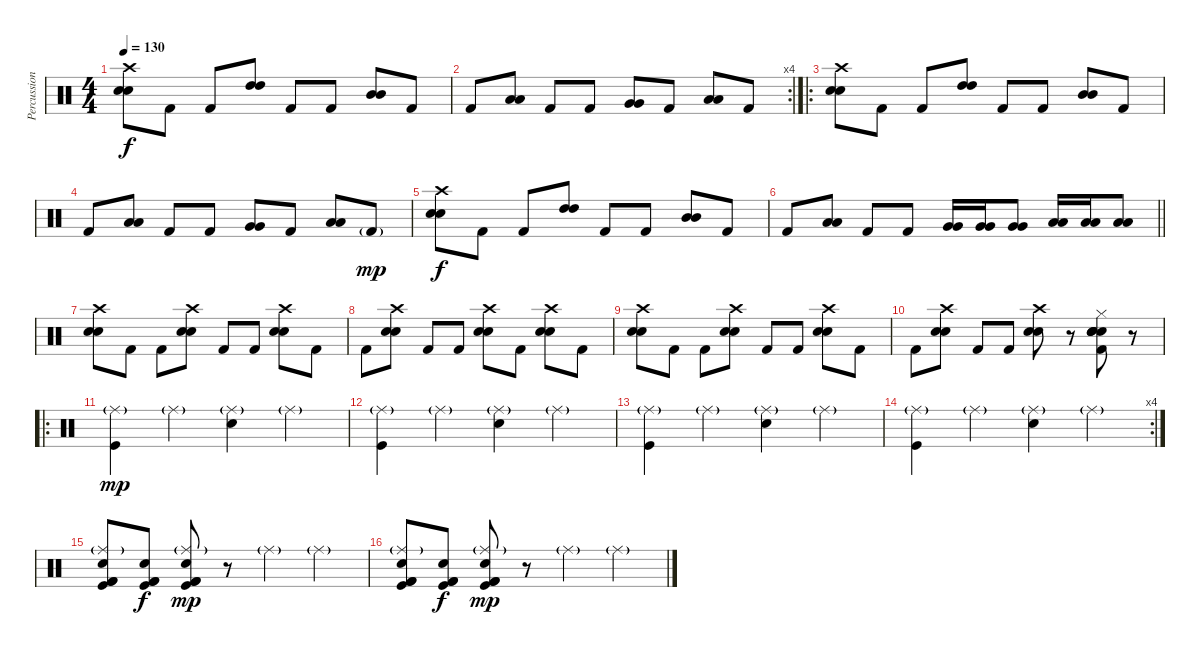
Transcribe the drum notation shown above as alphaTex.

\track ("Percussions" "Percussion") {instrument percussion}
\staff {score}
\articulation defaults
\ts (4 4)
\tempo 130
\clef neutral
\ks c
("Electric Snare (hit)" "Electric Snare (hit)" "Crash high (hit)").8{dy f} "Kick (hit) 2".8 "Kick (hit) 2".8 ("High Tom (hit)" "High Tom (hit)").8 "Kick (hit) 2".8 "Kick (hit) 2".8 ("Mid Tom (hit)" "Mid Tom (hit)").8 "Kick (hit) 2".8 |
\rc 4 "Kick (hit) 2".8
("Low Tom (hit)" "Low Tom (hit)").8 "Kick (hit) 2".8 "Kick (hit) 2".8 ("Very Low Tom (hit)" "Very Low Tom (hit)").8 "Kick (hit) 2".8 ("Low Floor Tom (hit)" "Low Floor Tom (hit)").8 "Kick (hit) 2".8 |
\ro
("Electric Snare (hit)" "Electric Snare (hit)" "Crash high (hit)").8 "Kick (hit) 2".8 "Kick (hit) 2".8 ("High Tom (hit)" "High Tom (hit)").8 "Kick (hit) 2".8 "Kick (hit) 2".8 ("Mid Tom (hit)" "Mid Tom (hit)").8 "Kick (hit) 2".8 |
"Kick (hit) 2".8 ("Low Tom (hit)" "Low Tom (hit)").8 "Kick (hit) 2".8 "Kick (hit) 2".8 ("Very Low Tom (hit)" "Very Low Tom (hit)").8 "Kick (hit) 2".8 ("Low Floor Tom (hit)" "Low Floor Tom (hit)").8 "Kick (hit) 2"{g}.8{dy mp} |
("Electric Snare (hit)" "Electric Snare (hit)" "Crash high (hit)").8{dy f} "Kick (hit) 2".8 "Kick (hit) 2".8 ("High Tom (hit)" "High Tom (hit)").8 "Kick (hit) 2".8 "Kick (hit) 2".8 ("Mid Tom (hit)" "Mid Tom (hit)").8 "Kick (hit) 2".8 |
\barLineRight lightlight "Kick (hit) 2".8
("Low Tom (hit)" "Low Tom (hit)").8 "Kick (hit) 2".8 "Kick (hit) 2".8 ("Very Low Tom (hit)" "Very Low Tom (hit)").16 ("Very Low Tom (hit)" "Very Low Tom (hit)").16 ("Very Low Tom (hit)" "Very Low Tom (hit)").8 ("Low Floor Tom (hit)" "Low Floor Tom (hit)").16 ("Low Floor Tom (hit)" "Low Floor Tom (hit)").16 ("Low Floor Tom (hit)" "Low Floor Tom (hit)").8 |
("Electric Snare (hit)" "Electric Snare (hit)" "Crash high (hit)").8 "Kick (hit) 2".8 "Kick (hit) 2".8 ("Electric Snare (hit)" "Electric Snare (hit)" "Crash high (hit)").8 "Kick (hit) 2".8 "Kick (hit) 2".8 ("Electric Snare (hit)" "Electric Snare (hit)" "Crash high (hit)").8 "Kick (hit) 2".8 |
"Kick (hit) 2".8 ("Electric Snare (hit)" "Electric Snare (hit)" "Crash high (hit)").8 "Kick (hit) 2".8 "Kick (hit) 2".8 ("Electric Snare (hit)" "Electric Snare (hit)" "Crash high (hit)").8 "Kick (hit) 2".8 ("Electric Snare (hit)" "Electric Snare (hit)" "Crash high (hit)").8 "Kick (hit) 2".8 |
("Electric Snare (hit)" "Electric Snare (hit)" "Crash high (hit)").8 "Kick (hit) 2".8 "Kick (hit) 2".8 ("Electric Snare (hit)" "Electric Snare (hit)" "Crash high (hit)").8 "Kick (hit) 2".8 "Kick (hit) 2".8 ("Electric Snare (hit)" "Electric Snare (hit)" "Crash high (hit)").8 "Kick (hit) 2".8 |
"Kick (hit) 2".8 ("Electric Snare (hit)" "Electric Snare (hit)" "Crash high (hit)").8 "Kick (hit) 2".8 "Kick (hit) 2".8 ("Electric Snare (hit)" "Electric Snare (hit)" "Crash high (hit)").8 r.8 ("Electric Snare (hit)" "Electric Snare (hit)" "Electric Snare (hit)" "Electric Snare (hit)" "Hi-Hat (closed)" "Kick (hit) 2").8 r.8 |
\ro
("Ride (middle)"{g} "Kick (hit)").4{dy mp} "Ride (middle)"{g}.4 ("Ride (middle)"{g} "Electric Snare (hit)").4 "Ride (middle)"{g}.4 |
("Ride (middle)"{g} "Kick (hit)").4 "Ride (middle)"{g}.4 ("Ride (middle)"{g} "Electric Snare (hit)").4 "Ride (middle)"{g}.4 |
("Ride (middle)"{g} "Kick (hit)").4 "Ride (middle)"{g}.4 ("Ride (middle)"{g} "Electric Snare (hit)").4 "Ride (middle)"{g}.4 |
\rc 4
("Ride (middle)"{g} "Kick (hit)").4 "Ride (middle)"{g}.4 ("Ride (middle)"{g} "Electric Snare (hit)").4 "Ride (middle)"{g}.4 |
("Ride (middle)"{g} "Kick (hit)" "Kick (hit) 2" "Electric Snare (hit)" "Kick (hit) 2").8 ("Kick (hit)" "Kick (hit) 2" "Electric Snare (hit)" "Kick (hit) 2").8{dy f} ("Ride (middle)"{g} "Kick (hit)" "Kick (hit) 2" "Electric Snare (hit)" "Kick (hit) 2").8{dy mp} r.8 "Ride (middle)"{g}.4 "Ride (middle)"{g}.4 |
("Ride (middle)"{g} "Kick (hit)" "Kick (hit) 2" "Electric Snare (hit)" "Kick (hit) 2").8 ("Kick (hit)" "Kick (hit) 2" "Electric Snare (hit)" "Kick (hit) 2").8{dy f} ("Ride (middle)"{g} "Kick (hit)" "Kick (hit) 2" "Electric Snare (hit)" "Kick (hit) 2").8{dy mp} r.8 "Ride (middle)"{g}.4 "Ride (middle)"{g}.4
